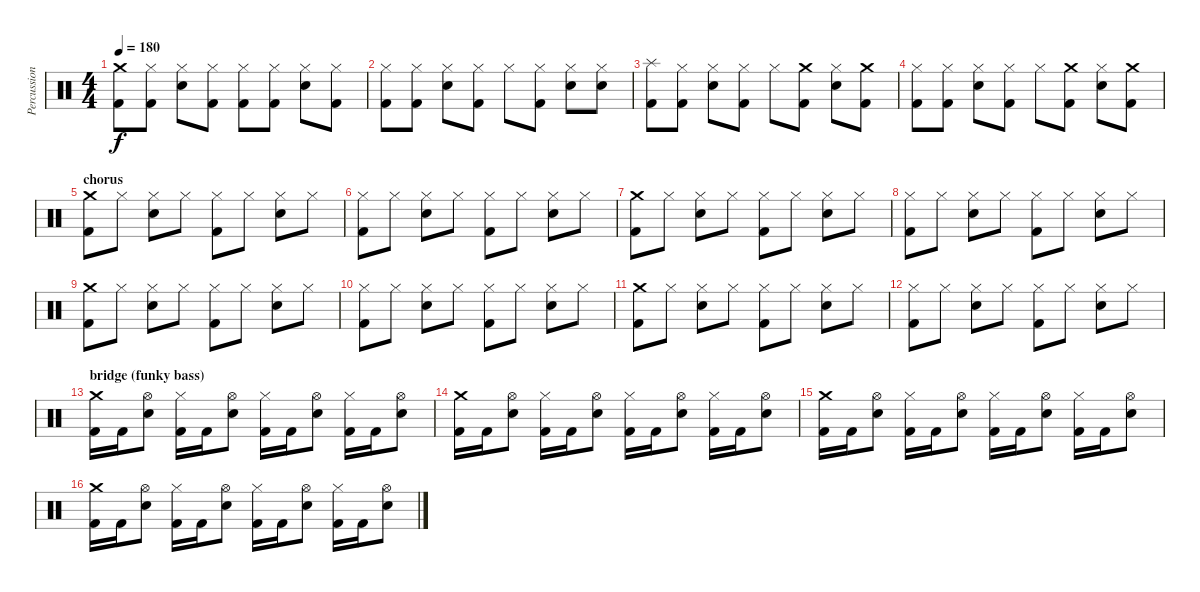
\track ("Percussion" "Percussion") {instrument percussion}
\staff {score}
\articulation defaults
\ts (4 4)
\tempo 180
\clef neutral
\ks c
("Crash medium (hit)" "Kick (hit) 2").8{dy f} ("Hi-Hat (closed)" "Kick (hit) 2").8 ("Hi-Hat (closed)" "Electric Snare (hit)").8 ("Hi-Hat (closed)" "Kick (hit) 2").8 ("Hi-Hat (closed)" "Kick (hit) 2").8 ("Hi-Hat (closed)" "Kick (hit) 2").8 ("Hi-Hat (closed)" "Electric Snare (hit)").8 ("Hi-Hat (closed)" "Kick (hit) 2").8 |
("Hi-Hat (closed)" "Kick (hit) 2").8 ("Hi-Hat (closed)" "Kick (hit) 2").8 ("Hi-Hat (closed)" "Electric Snare (hit)").8 ("Hi-Hat (closed)" "Kick (hit) 2").8 "Hi-Hat (closed)".8 ("Hi-Hat (closed)" "Kick (hit) 2").8 ("Hi-Hat (closed)" "Electric Snare (hit)").8 ("Hi-Hat (closed)" "Electric Snare (hit)").8 |
("Splash (hit)" "Kick (hit) 2").8 ("Hi-Hat (closed)" "Kick (hit) 2").8 ("Hi-Hat (closed)" "Electric Snare (hit)").8 ("Hi-Hat (closed)" "Kick (hit) 2").8 "Hi-Hat (closed)".8 ("Crash medium (hit)" "Kick (hit) 2").8 ("Hi-Hat (closed)" "Electric Snare (hit)").8 ("Crash medium (hit)" "Kick (hit) 2").8 |
("Hi-Hat (closed)" "Kick (hit) 2").8 ("Hi-Hat (closed)" "Kick (hit) 2").8 ("Hi-Hat (closed)" "Electric Snare (hit)").8 ("Hi-Hat (closed)" "Kick (hit) 2").8 "Hi-Hat (closed)".8 ("Crash medium (hit)" "Kick (hit) 2").8 ("Hi-Hat (closed)" "Electric Snare (hit)").8 ("Crash medium (hit)" "Kick (hit) 2").8 |
\section ("" "chorus")
("Crash medium (hit)" "Kick (hit) 2").8 "Hi-Hat (closed)".8 ("Hi-Hat (closed)" "Electric Snare (hit)").8 "Hi-Hat (closed)".8 ("Hi-Hat (closed)" "Kick (hit) 2").8 "Hi-Hat (closed)".8 ("Hi-Hat (closed)" "Electric Snare (hit)").8 "Hi-Hat (closed)".8 |
("Hi-Hat (closed)" "Kick (hit) 2").8 "Hi-Hat (closed)".8 ("Hi-Hat (closed)" "Electric Snare (hit)").8 "Hi-Hat (closed)".8 ("Hi-Hat (closed)" "Kick (hit) 2").8 "Hi-Hat (closed)".8 ("Hi-Hat (closed)" "Electric Snare (hit)").8 "Hi-Hat (closed)".8 |
("Crash medium (hit)" "Kick (hit) 2").8 "Hi-Hat (closed)".8 ("Hi-Hat (closed)" "Electric Snare (hit)").8 "Hi-Hat (closed)".8 ("Hi-Hat (closed)" "Kick (hit) 2").8 "Hi-Hat (closed)".8 ("Hi-Hat (closed)" "Electric Snare (hit)").8 "Hi-Hat (closed)".8 |
("Hi-Hat (closed)" "Kick (hit) 2").8 "Hi-Hat (closed)".8 ("Hi-Hat (closed)" "Electric Snare (hit)").8 "Hi-Hat (closed)".8 ("Hi-Hat (closed)" "Kick (hit) 2").8 "Hi-Hat (closed)".8 ("Hi-Hat (closed)" "Electric Snare (hit)").8 "Hi-Hat (closed)".8 |
("Crash medium (hit)" "Kick (hit) 2").8 "Hi-Hat (closed)".8 ("Hi-Hat (closed)" "Electric Snare (hit)").8 "Hi-Hat (closed)".8 ("Hi-Hat (closed)" "Kick (hit) 2").8 "Hi-Hat (closed)".8 ("Hi-Hat (closed)" "Electric Snare (hit)").8 "Hi-Hat (closed)".8 |
("Hi-Hat (closed)" "Kick (hit) 2").8 "Hi-Hat (closed)".8 ("Hi-Hat (closed)" "Electric Snare (hit)").8 "Hi-Hat (closed)".8 ("Hi-Hat (closed)" "Kick (hit) 2").8 "Hi-Hat (closed)".8 ("Hi-Hat (closed)" "Electric Snare (hit)").8 "Hi-Hat (closed)".8 |
("Crash medium (hit)" "Kick (hit) 2").8 "Hi-Hat (closed)".8 ("Hi-Hat (closed)" "Electric Snare (hit)").8 "Hi-Hat (closed)".8 ("Hi-Hat (closed)" "Kick (hit) 2").8 "Hi-Hat (closed)".8 ("Hi-Hat (closed)" "Electric Snare (hit)").8 "Hi-Hat (closed)".8 |
("Hi-Hat (closed)" "Kick (hit) 2").8 "Hi-Hat (closed)".8 ("Hi-Hat (closed)" "Electric Snare (hit)").8 "Hi-Hat (closed)".8 ("Hi-Hat (closed)" "Kick (hit) 2").8 "Hi-Hat (closed)".8 ("Hi-Hat (closed)" "Electric Snare (hit)").8 "Hi-Hat (closed)".8 |
\section ("" "bridge (funky bass)")
("Crash medium (hit)" "Kick (hit) 2").16 "Kick (hit) 2".16 ("Hi-Hat (open)" "Electric Snare (hit)").8 ("Hi-Hat (closed)" "Kick (hit) 2").16 "Kick (hit) 2".16 ("Hi-Hat (open)" "Electric Snare (hit)").8 ("Hi-Hat (closed)" "Kick (hit) 2").16 "Kick (hit) 2".16 ("Hi-Hat (open)" "Electric Snare (hit)").8 ("Hi-Hat (closed)" "Kick (hit) 2").16 "Kick (hit) 2".16 ("Hi-Hat (open)" "Electric Snare (hit)").8 |
("Crash medium (hit)" "Kick (hit) 2").16 "Kick (hit) 2".16 ("Hi-Hat (open)" "Electric Snare (hit)").8 ("Hi-Hat (closed)" "Kick (hit) 2").16 "Kick (hit) 2".16 ("Hi-Hat (open)" "Electric Snare (hit)").8 ("Hi-Hat (closed)" "Kick (hit) 2").16 "Kick (hit) 2".16 ("Hi-Hat (open)" "Electric Snare (hit)").8 ("Hi-Hat (closed)" "Kick (hit) 2").16 "Kick (hit) 2".16 ("Hi-Hat (open)" "Electric Snare (hit)").8 |
("Crash medium (hit)" "Kick (hit) 2").16 "Kick (hit) 2".16 ("Hi-Hat (open)" "Electric Snare (hit)").8 ("Hi-Hat (closed)" "Kick (hit) 2").16 "Kick (hit) 2".16 ("Hi-Hat (open)" "Electric Snare (hit)").8 ("Hi-Hat (closed)" "Kick (hit) 2").16 "Kick (hit) 2".16 ("Hi-Hat (open)" "Electric Snare (hit)").8 ("Hi-Hat (closed)" "Kick (hit) 2").16 "Kick (hit) 2".16 ("Hi-Hat (open)" "Electric Snare (hit)").8 |
("Crash medium (hit)" "Kick (hit) 2").16 "Kick (hit) 2".16 ("Hi-Hat (open)" "Electric Snare (hit)").8 ("Hi-Hat (closed)" "Kick (hit) 2").16 "Kick (hit) 2".16 ("Hi-Hat (open)" "Electric Snare (hit)").8 ("Hi-Hat (closed)" "Kick (hit) 2").16 "Kick (hit) 2".16 ("Hi-Hat (open)" "Electric Snare (hit)").8 ("Hi-Hat (closed)" "Kick (hit) 2").16 "Kick (hit) 2".16 ("Hi-Hat (open)" "Electric Snare (hit)").8
